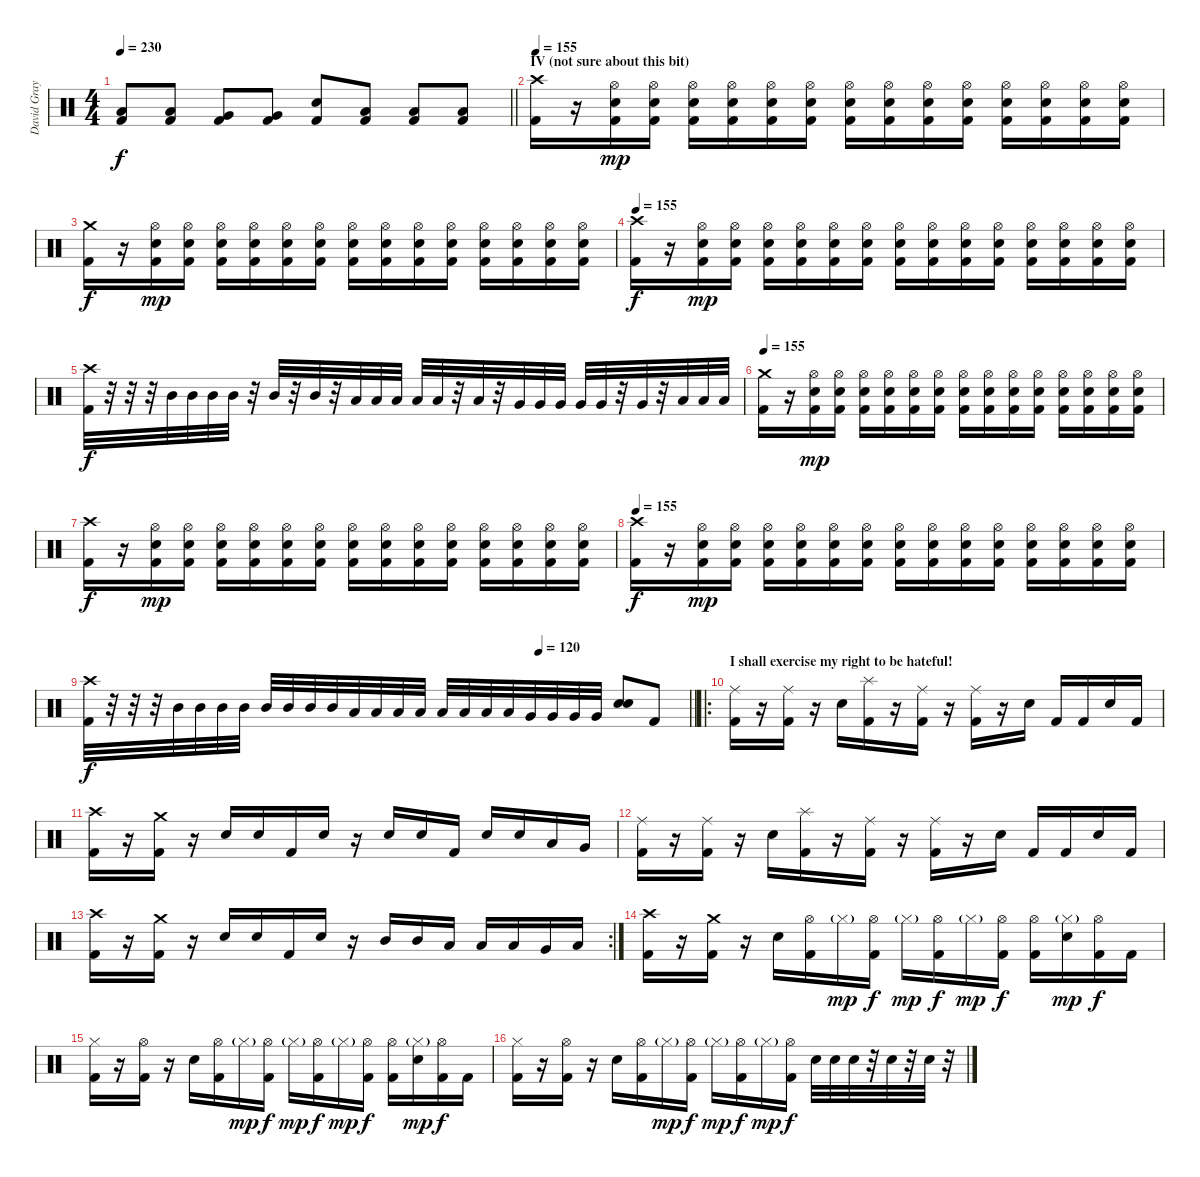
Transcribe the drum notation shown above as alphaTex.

\track ("David Gray" "David Gray") {instrument percussion}
\staff {score}
\articulation defaults
\ts (4 4)
\tempo 230
\clef neutral
\barLineRight lightlight
\ks c
("Low Tom (hit)" "Kick (hit) 2").8{dy f} ("Low Tom (hit)" "Kick (hit) 2").8 ("Very Low Tom (hit)" "Kick (hit) 2").8 ("Very Low Tom (hit)" "Kick (hit) 2").8 ("Electric Snare (hit)" "Kick (hit) 2").8 ("Low Floor Tom (hit)" "Kick (hit) 2").8 ("Low Floor Tom (hit)" "Kick (hit) 2").8 ("Low Floor Tom (hit)" "Kick (hit) 2").8 |
\section ("" "IV (not sure about this bit)")
\tempo 155
("Crash high (hit)" "Kick (hit) 2").16 r.16 ("Hi-Hat (open)" "Electric Snare (hit)" "Kick (hit) 2").16{dy mp} ("Hi-Hat (open)" "Electric Snare (hit)" "Kick (hit) 2").16 ("Hi-Hat (open)" "Electric Snare (hit)" "Kick (hit) 2").16 ("Hi-Hat (open)" "Electric Snare (hit)" "Kick (hit) 2").16 ("Hi-Hat (open)" "Electric Snare (hit)" "Kick (hit) 2").16 ("Hi-Hat (open)" "Electric Snare (hit)" "Kick (hit) 2").16 ("Hi-Hat (open)" "Electric Snare (hit)" "Kick (hit) 2").16 ("Hi-Hat (open)" "Electric Snare (hit)" "Kick (hit) 2").16 ("Hi-Hat (open)" "Electric Snare (hit)" "Kick (hit) 2").16 ("Hi-Hat (open)" "Electric Snare (hit)" "Kick (hit) 2").16 ("Hi-Hat (open)" "Electric Snare (hit)" "Kick (hit) 2").16 ("Hi-Hat (open)" "Electric Snare (hit)" "Kick (hit) 2").16 ("Hi-Hat (open)" "Electric Snare (hit)" "Kick (hit) 2").16 ("Hi-Hat (open)" "Electric Snare (hit)" "Kick (hit) 2").16 |
("Crash medium (hit)" "Kick (hit) 2").16{dy f} r.16 ("Hi-Hat (open)" "Electric Snare (hit)" "Kick (hit) 2").16{dy mp} ("Hi-Hat (open)" "Electric Snare (hit)" "Kick (hit) 2").16 ("Hi-Hat (open)" "Electric Snare (hit)" "Kick (hit) 2").16 ("Hi-Hat (open)" "Electric Snare (hit)" "Kick (hit) 2").16 ("Hi-Hat (open)" "Electric Snare (hit)" "Kick (hit) 2").16 ("Hi-Hat (open)" "Electric Snare (hit)" "Kick (hit) 2").16 ("Hi-Hat (open)" "Electric Snare (hit)" "Kick (hit) 2").16 ("Hi-Hat (open)" "Electric Snare (hit)" "Kick (hit) 2").16 ("Hi-Hat (open)" "Electric Snare (hit)" "Kick (hit) 2").16 ("Hi-Hat (open)" "Electric Snare (hit)" "Kick (hit) 2").16 ("Hi-Hat (open)" "Electric Snare (hit)" "Kick (hit) 2").16 ("Hi-Hat (open)" "Electric Snare (hit)" "Kick (hit) 2").16 ("Hi-Hat (open)" "Electric Snare (hit)" "Kick (hit) 2").16 ("Hi-Hat (open)" "Electric Snare (hit)" "Kick (hit) 2").16 |
\tempo 155
("Crash high (hit)" "Kick (hit) 2").16{dy f} r.16 ("Hi-Hat (open)" "Electric Snare (hit)" "Kick (hit) 2").16{dy mp} ("Hi-Hat (open)" "Electric Snare (hit)" "Kick (hit) 2").16 ("Hi-Hat (open)" "Electric Snare (hit)" "Kick (hit) 2").16 ("Hi-Hat (open)" "Electric Snare (hit)" "Kick (hit) 2").16 ("Hi-Hat (open)" "Electric Snare (hit)" "Kick (hit) 2").16 ("Hi-Hat (open)" "Electric Snare (hit)" "Kick (hit) 2").16 ("Hi-Hat (open)" "Electric Snare (hit)" "Kick (hit) 2").16 ("Hi-Hat (open)" "Electric Snare (hit)" "Kick (hit) 2").16 ("Hi-Hat (open)" "Electric Snare (hit)" "Kick (hit) 2").16 ("Hi-Hat (open)" "Electric Snare (hit)" "Kick (hit) 2").16 ("Hi-Hat (open)" "Electric Snare (hit)" "Kick (hit) 2").16 ("Hi-Hat (open)" "Electric Snare (hit)" "Kick (hit) 2").16 ("Hi-Hat (open)" "Electric Snare (hit)" "Kick (hit) 2").16 ("Hi-Hat (open)" "Electric Snare (hit)" "Kick (hit) 2").16 |
("Crash high (hit)" "Kick (hit) 2").32{dy f} r.32 r.32 r.32 "Mid Tom (hit)".32 "Mid Tom (hit)".32 "Mid Tom (hit)".32 "Mid Tom (hit)".32 r.32 "Mid Tom (hit)".32 r.32 "Mid Tom (hit)".32 r.32 "Low Tom (hit)".32 "Low Tom (hit)".32 "Low Tom (hit)".32 "Low Tom (hit)".32 "Low Tom (hit)".32 r.32 "Low Tom (hit)".32 r.32 "Very Low Tom (hit)".32 "Very Low Tom (hit)".32 "Very Low Tom (hit)".32 "Very Low Tom (hit)".32 "Very Low Tom (hit)".32 r.32 "Very Low Tom (hit)".32 r.32 "Low Floor Tom (hit)".32 "Low Floor Tom (hit)".32 "Low Floor Tom (hit)".32 |
\tempo 155
("Crash medium (hit)" "Kick (hit) 2").16 r.16 ("Hi-Hat (open)" "Electric Snare (hit)" "Kick (hit) 2").16{dy mp} ("Hi-Hat (open)" "Electric Snare (hit)" "Kick (hit) 2").16 ("Hi-Hat (open)" "Electric Snare (hit)" "Kick (hit) 2").16 ("Hi-Hat (open)" "Electric Snare (hit)" "Kick (hit) 2").16 ("Hi-Hat (open)" "Electric Snare (hit)" "Kick (hit) 2").16 ("Hi-Hat (open)" "Electric Snare (hit)" "Kick (hit) 2").16 ("Hi-Hat (open)" "Electric Snare (hit)" "Kick (hit) 2").16 ("Hi-Hat (open)" "Electric Snare (hit)" "Kick (hit) 2").16 ("Hi-Hat (open)" "Electric Snare (hit)" "Kick (hit) 2").16 ("Hi-Hat (open)" "Electric Snare (hit)" "Kick (hit) 2").16 ("Hi-Hat (open)" "Electric Snare (hit)" "Kick (hit) 2").16 ("Hi-Hat (open)" "Electric Snare (hit)" "Kick (hit) 2").16 ("Hi-Hat (open)" "Electric Snare (hit)" "Kick (hit) 2").16 ("Hi-Hat (open)" "Electric Snare (hit)" "Kick (hit) 2").16 |
("Crash high (hit)" "Kick (hit) 2").16{dy f} r.16 ("Hi-Hat (open)" "Electric Snare (hit)" "Kick (hit) 2").16{dy mp} ("Hi-Hat (open)" "Electric Snare (hit)" "Kick (hit) 2").16 ("Hi-Hat (open)" "Electric Snare (hit)" "Kick (hit) 2").16 ("Hi-Hat (open)" "Electric Snare (hit)" "Kick (hit) 2").16 ("Hi-Hat (open)" "Electric Snare (hit)" "Kick (hit) 2").16 ("Hi-Hat (open)" "Electric Snare (hit)" "Kick (hit) 2").16 ("Hi-Hat (open)" "Electric Snare (hit)" "Kick (hit) 2").16 ("Hi-Hat (open)" "Electric Snare (hit)" "Kick (hit) 2").16 ("Hi-Hat (open)" "Electric Snare (hit)" "Kick (hit) 2").16 ("Hi-Hat (open)" "Electric Snare (hit)" "Kick (hit) 2").16 ("Hi-Hat (open)" "Electric Snare (hit)" "Kick (hit) 2").16 ("Hi-Hat (open)" "Electric Snare (hit)" "Kick (hit) 2").16 ("Hi-Hat (open)" "Electric Snare (hit)" "Kick (hit) 2").16 ("Hi-Hat (open)" "Electric Snare (hit)" "Kick (hit) 2").16 |
\tempo 155
("Crash high (hit)" "Kick (hit) 2").16{dy f} r.16 ("Hi-Hat (open)" "Electric Snare (hit)" "Kick (hit) 2").16{dy mp} ("Hi-Hat (open)" "Electric Snare (hit)" "Kick (hit) 2").16 ("Hi-Hat (open)" "Electric Snare (hit)" "Kick (hit) 2").16 ("Hi-Hat (open)" "Electric Snare (hit)" "Kick (hit) 2").16 ("Hi-Hat (open)" "Electric Snare (hit)" "Kick (hit) 2").16 ("Hi-Hat (open)" "Electric Snare (hit)" "Kick (hit) 2").16 ("Hi-Hat (open)" "Electric Snare (hit)" "Kick (hit) 2").16 ("Hi-Hat (open)" "Electric Snare (hit)" "Kick (hit) 2").16 ("Hi-Hat (open)" "Electric Snare (hit)" "Kick (hit) 2").16 ("Hi-Hat (open)" "Electric Snare (hit)" "Kick (hit) 2").16 ("Hi-Hat (open)" "Electric Snare (hit)" "Kick (hit) 2").16 ("Hi-Hat (open)" "Electric Snare (hit)" "Kick (hit) 2").16 ("Hi-Hat (open)" "Electric Snare (hit)" "Kick (hit) 2").16 ("Hi-Hat (open)" "Electric Snare (hit)" "Kick (hit) 2").16 |
\tempo (120 0.75)
\barLineRight lightlight
("Crash high (hit)" "Kick (hit) 2").32{dy f} r.32 r.32 r.32 "Mid Tom (hit)".32 "Mid Tom (hit)".32 "Mid Tom (hit)".32 "Mid Tom (hit)".32 "Mid Tom (hit)".32 "Mid Tom (hit)".32 "Mid Tom (hit)".32 "Mid Tom (hit)".32 "Low Tom (hit)".32 "Low Tom (hit)".32 "Low Tom (hit)".32 "Low Tom (hit)".32 "Low Tom (hit)".32 "Low Tom (hit)".32 "Low Tom (hit)".32 "Low Tom (hit)".32 "Very Low Tom (hit)".32 "Very Low Tom (hit)".32 "Very Low Tom (hit)".32 "Very Low Tom (hit)".32 ("Electric Snare (hit)" "Electric Snare (hit)").8{bu 480} "Kick (hit) 2".8 |
\ro
\section ("" "I shall exercise my right to be hateful!")
("Ride (middle)" "Kick (hit) 2").16 r.16 ("Ride (middle)" "Kick (hit) 2").16 r.16 "Electric Snare (hit)".16 ("Splash (hit)" "Kick (hit) 2").16 r.16 ("Ride (middle)" "Kick (hit) 2").16 r.16 ("Ride (middle)" "Kick (hit) 2").16 r.16 "Electric Snare (hit)".16 "Kick (hit) 2".16 "Kick (hit) 2".16 "Electric Snare (hit)".16 "Kick (hit) 2".16 |
("Crash high (hit)" "Kick (hit) 2").16 r.16 ("Crash medium (hit)" "Kick (hit) 2").16 r.16 "Electric Snare (hit)".16 "Electric Snare (hit)".16 "Kick (hit) 2".16 "Electric Snare (hit)".16 r.16 "Electric Snare (hit)".16 "Electric Snare (hit)".16 "Kick (hit) 2".16 "Electric Snare (hit)".16 "Electric Snare (hit)".16 "Low Tom (hit)".16 "Very Low Tom (hit)".16 |
("Ride (middle)" "Kick (hit) 2").16 r.16 ("Ride (middle)" "Kick (hit) 2").16 r.16 "Electric Snare (hit)".16 ("Splash (hit)" "Kick (hit) 2").16 r.16 ("Ride (middle)" "Kick (hit) 2").16 r.16 ("Ride (middle)" "Kick (hit) 2").16 r.16 "Electric Snare (hit)".16 "Kick (hit) 2".16 "Kick (hit) 2".16 "Electric Snare (hit)".16 "Kick (hit) 2".16 |
\rc 2
("Crash high (hit)" "Kick (hit) 2").16 r.16 ("Crash medium (hit)" "Kick (hit) 2").16 r.16 "Electric Snare (hit)".16 "Electric Snare (hit)".16 "Kick (hit) 2".16 "Electric Snare (hit)".16 r.16 "Mid Tom (hit)".16 "Mid Tom (hit)".16 "Low Tom (hit)".16 "Low Tom (hit)".16 "Low Tom (hit)".16 "Very Low Tom (hit)".16 "Low Floor Tom (hit)".16 |
("Crash high (hit)" "Kick (hit) 2").16 r.16 ("Crash medium (hit)" "Kick (hit) 2").16 r.16 "Electric Snare (hit)".16 ("Hi-Hat (open)" "Kick (hit) 2").16 "Hi-Hat (closed)"{g}.16{dy mp} ("Hi-Hat (open)" "Kick (hit) 2").16{dy f} "Hi-Hat (closed)"{g}.16{dy mp} ("Hi-Hat (open)" "Kick (hit) 2").16{dy f} "Hi-Hat (closed)"{g}.16{dy mp} ("Hi-Hat (open)" "Kick (hit) 2").16{dy f} ("Hi-Hat (open)" "Kick (hit) 2").16 ("Hi-Hat (closed)"{g} "Electric Snare (hit)").16{dy mp} ("Hi-Hat (open)" "Kick (hit) 2").16{dy f} "Kick (hit) 2".16 |
("Hi-Hat (closed)" "Kick (hit) 2").16 r.16 ("Hi-Hat (open)" "Kick (hit) 2").16 r.16 "Electric Snare (hit)".16 ("Hi-Hat (open)" "Kick (hit) 2").16 "Hi-Hat (closed)"{g}.16{dy mp} ("Hi-Hat (open)" "Kick (hit) 2").16{dy f} "Hi-Hat (closed)"{g}.16{dy mp} ("Hi-Hat (open)" "Kick (hit) 2").16{dy f} "Hi-Hat (closed)"{g}.16{dy mp} ("Hi-Hat (open)" "Kick (hit) 2").16{dy f} ("Hi-Hat (open)" "Kick (hit) 2").16 ("Hi-Hat (closed)"{g} "Electric Snare (hit)").16{dy mp} ("Hi-Hat (open)" "Kick (hit) 2").16{dy f} "Kick (hit) 2".16 |
("Hi-Hat (closed)" "Kick (hit) 2").16 r.16 ("Hi-Hat (open)" "Kick (hit) 2").16 r.16 "Electric Snare (hit)".16 ("Hi-Hat (open)" "Kick (hit) 2").16 "Hi-Hat (closed)"{g}.16{dy mp} ("Hi-Hat (open)" "Kick (hit) 2").16{dy f} "Hi-Hat (closed)"{g}.16{dy mp} ("Hi-Hat (open)" "Kick (hit) 2").16{dy f} "Hi-Hat (closed)"{g}.16{dy mp} ("Hi-Hat (open)" "Kick (hit) 2").16{dy f} "Electric Snare (hit)".32 "Electric Snare (hit)".32 "Electric Snare (hit)".32 r.32 "Electric Snare (hit)".32 r.32 "Electric Snare (hit)".32 r.32
